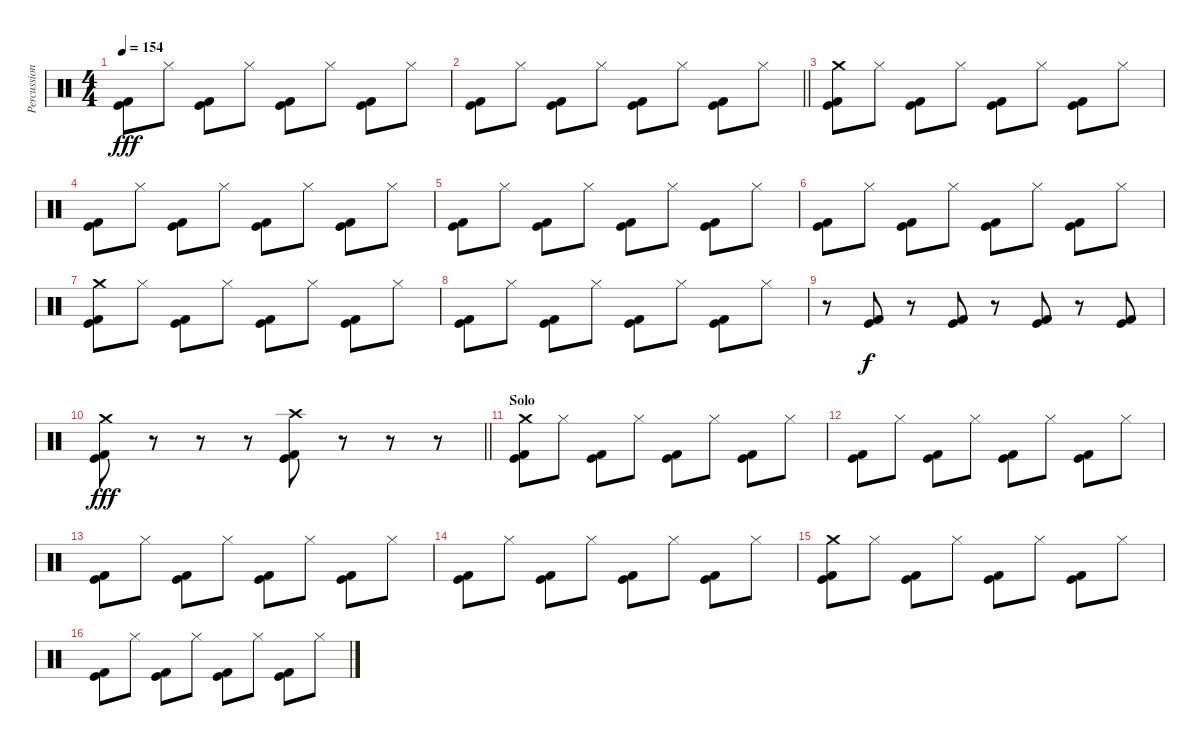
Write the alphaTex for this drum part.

\track ("Percussion" "Percussion") {instrument percussion}
\staff {score}
\articulation defaults
\ts (4 4)
\tempo 154
\clef neutral
\ks c
("Kick (hit)" "Kick (hit) 2").8{dy fff} "Hi-Hat (closed)".8 ("Kick (hit)" "Kick (hit) 2").8 "Hi-Hat (closed)".8 ("Kick (hit)" "Kick (hit) 2").8 "Hi-Hat (closed)".8 ("Kick (hit)" "Kick (hit) 2").8 "Hi-Hat (closed)".8 |
\barLineRight lightlight
("Kick (hit)" "Kick (hit) 2").8 "Hi-Hat (closed)".8 ("Kick (hit)" "Kick (hit) 2").8 "Hi-Hat (closed)".8 ("Kick (hit)" "Kick (hit) 2").8 "Hi-Hat (closed)".8 ("Kick (hit)" "Kick (hit) 2").8 "Hi-Hat (closed)".8 |
("Crash medium (hit)" "Kick (hit)" "Kick (hit) 2").8 "Hi-Hat (closed)".8 ("Kick (hit)" "Kick (hit) 2").8 "Hi-Hat (closed)".8 ("Kick (hit)" "Kick (hit) 2").8 "Hi-Hat (closed)".8 ("Kick (hit)" "Kick (hit) 2").8 "Hi-Hat (closed)".8 |
("Kick (hit)" "Kick (hit) 2").8 "Hi-Hat (closed)".8 ("Kick (hit)" "Kick (hit) 2").8 "Hi-Hat (closed)".8 ("Kick (hit)" "Kick (hit) 2").8 "Hi-Hat (closed)".8 ("Kick (hit)" "Kick (hit) 2").8 "Hi-Hat (closed)".8 |
("Kick (hit)" "Kick (hit) 2").8 "Hi-Hat (closed)".8 ("Kick (hit)" "Kick (hit) 2").8 "Hi-Hat (closed)".8 ("Kick (hit)" "Kick (hit) 2").8 "Hi-Hat (closed)".8 ("Kick (hit)" "Kick (hit) 2").8 "Hi-Hat (closed)".8 |
("Kick (hit)" "Kick (hit) 2").8 "Hi-Hat (closed)".8 ("Kick (hit)" "Kick (hit) 2").8 "Hi-Hat (closed)".8 ("Kick (hit)" "Kick (hit) 2").8 "Hi-Hat (closed)".8 ("Kick (hit)" "Kick (hit) 2").8 "Hi-Hat (closed)".8 |
("Crash medium (hit)" "Kick (hit)" "Kick (hit) 2").8 "Hi-Hat (closed)".8 ("Kick (hit)" "Kick (hit) 2").8 "Hi-Hat (closed)".8 ("Kick (hit)" "Kick (hit) 2").8 "Hi-Hat (closed)".8 ("Kick (hit)" "Kick (hit) 2").8 "Hi-Hat (closed)".8 |
("Kick (hit)" "Kick (hit) 2").8 "Hi-Hat (closed)".8 ("Kick (hit)" "Kick (hit) 2").8 "Hi-Hat (closed)".8 ("Kick (hit)" "Kick (hit) 2").8 "Hi-Hat (closed)".8 ("Kick (hit)" "Kick (hit) 2").8 "Hi-Hat (closed)".8 |
r.8 ("Kick (hit)" "Kick (hit) 2").8{dy f} r.8 ("Kick (hit)" "Kick (hit) 2").8 r.8 ("Kick (hit)" "Kick (hit) 2").8 r.8 ("Kick (hit)" "Kick (hit) 2").8 |
\barLineRight lightlight
("Crash medium (hit)" "Kick (hit)" "Kick (hit) 2").8{dy fff} r.8 r.8 r.8 ("Crash high (hit)" "Kick (hit)" "Kick (hit) 2").8 r.8 r.8 r.8 |
\section ("" "Solo")
("Crash medium (hit)" "Kick (hit)" "Kick (hit) 2").8 "Hi-Hat (closed)".8 ("Kick (hit)" "Kick (hit) 2").8 "Hi-Hat (closed)".8 ("Kick (hit)" "Kick (hit) 2").8 "Hi-Hat (closed)".8 ("Kick (hit)" "Kick (hit) 2").8 "Hi-Hat (closed)".8 |
("Kick (hit)" "Kick (hit) 2").8 "Hi-Hat (closed)".8 ("Kick (hit)" "Kick (hit) 2").8 "Hi-Hat (closed)".8 ("Kick (hit)" "Kick (hit) 2").8 "Hi-Hat (closed)".8 ("Kick (hit)" "Kick (hit) 2").8 "Hi-Hat (closed)".8 |
("Kick (hit)" "Kick (hit) 2").8 "Hi-Hat (closed)".8 ("Kick (hit)" "Kick (hit) 2").8 "Hi-Hat (closed)".8 ("Kick (hit)" "Kick (hit) 2").8 "Hi-Hat (closed)".8 ("Kick (hit)" "Kick (hit) 2").8 "Hi-Hat (closed)".8 |
("Kick (hit)" "Kick (hit) 2").8 "Hi-Hat (closed)".8 ("Kick (hit)" "Kick (hit) 2").8 "Hi-Hat (closed)".8 ("Kick (hit)" "Kick (hit) 2").8 "Hi-Hat (closed)".8 ("Kick (hit)" "Kick (hit) 2").8 "Hi-Hat (closed)".8 |
("Crash medium (hit)" "Kick (hit)" "Kick (hit) 2").8 "Hi-Hat (closed)".8 ("Kick (hit)" "Kick (hit) 2").8 "Hi-Hat (closed)".8 ("Kick (hit)" "Kick (hit) 2").8 "Hi-Hat (closed)".8 ("Kick (hit)" "Kick (hit) 2").8 "Hi-Hat (closed)".8 |
("Kick (hit)" "Kick (hit) 2").8 "Hi-Hat (closed)".8 ("Kick (hit)" "Kick (hit) 2").8 "Hi-Hat (closed)".8 ("Kick (hit)" "Kick (hit) 2").8 "Hi-Hat (closed)".8 ("Kick (hit)" "Kick (hit) 2").8 "Hi-Hat (closed)".8
